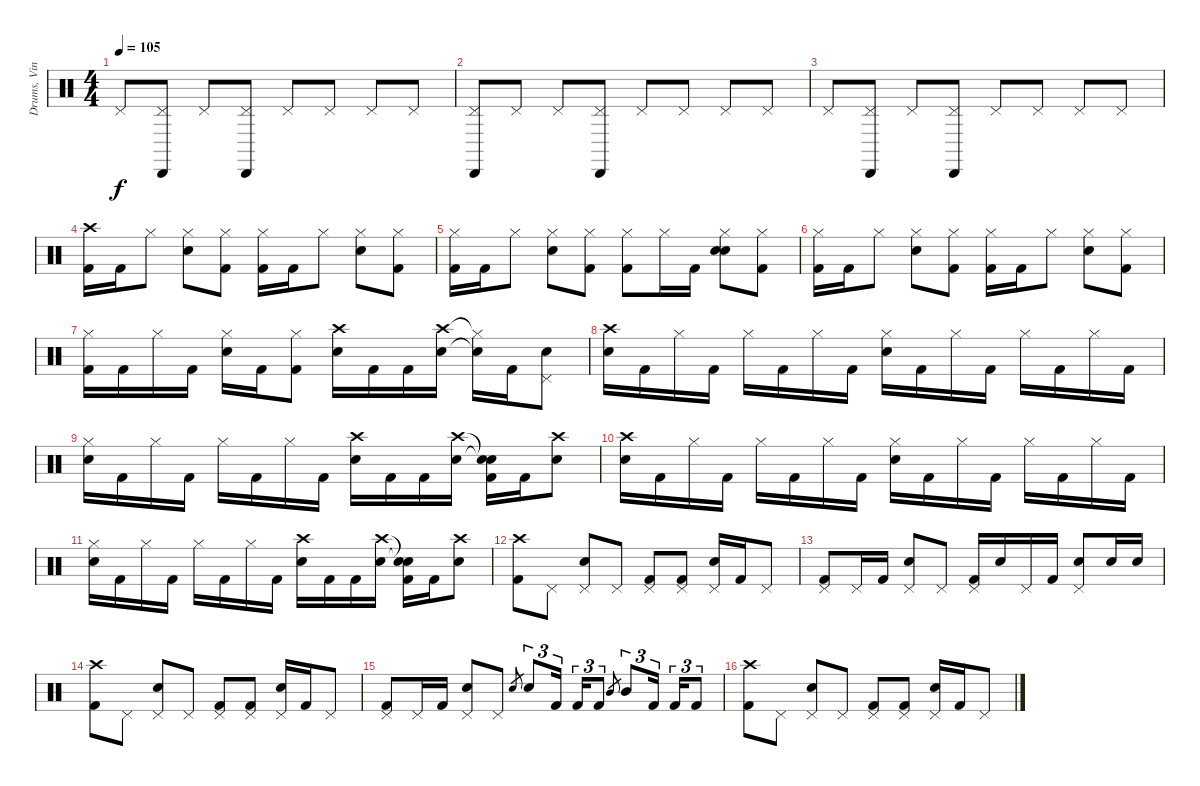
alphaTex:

\track ("Drums, Vinnie" "Drums, Vin") {instrument percussion}
\staff {score}
\articulation defaults
\ts (4 4)
\tempo 105
\clef neutral
\ks c "Pedal Hi-Hat (hit)".8{dy f}
("Pedal Hi-Hat (hit)" "Cabasa (hit)").8 "Pedal Hi-Hat (hit)".8 ("Pedal Hi-Hat (hit)" "Cabasa (hit)").8 "Pedal Hi-Hat (hit)".8 "Pedal Hi-Hat (hit)".8 "Pedal Hi-Hat (hit)".8 "Pedal Hi-Hat (hit)".8 |
("Pedal Hi-Hat (hit)" "Cabasa (hit)").8 "Pedal Hi-Hat (hit)".8 "Pedal Hi-Hat (hit)".8 ("Pedal Hi-Hat (hit)" "Cabasa (hit)").8 "Pedal Hi-Hat (hit)".8 "Pedal Hi-Hat (hit)".8 "Pedal Hi-Hat (hit)".8 "Pedal Hi-Hat (hit)".8 |
"Pedal Hi-Hat (hit)".8 ("Pedal Hi-Hat (hit)" "Cabasa (hit)").8 "Pedal Hi-Hat (hit)".8 ("Pedal Hi-Hat (hit)" "Cabasa (hit)").8 "Pedal Hi-Hat (hit)".8 "Pedal Hi-Hat (hit)".8 "Pedal Hi-Hat (hit)".8 "Pedal Hi-Hat (hit)".8 |
("Crash high (hit)" "Kick (hit) 2").16 "Kick (hit) 2".16 "Hi-Hat (closed)".8 ("Hi-Hat (closed)" "Electric Snare (hit)").8 ("Hi-Hat (closed)" "Kick (hit) 2").8 ("Hi-Hat (closed)" "Kick (hit) 2").16 "Kick (hit) 2".16 "Hi-Hat (closed)".8 ("Hi-Hat (closed)" "Electric Snare (hit)").8 ("Hi-Hat (closed)" "Kick (hit) 2").8 |
("Hi-Hat (closed)" "Kick (hit) 2").16 "Kick (hit) 2".16 "Hi-Hat (closed)".8 ("Hi-Hat (closed)" "Electric Snare (hit)").8 ("Hi-Hat (closed)" "Kick (hit) 2").8 ("Hi-Hat (closed)" "Kick (hit) 2").8 "Hi-Hat (closed)".16 "Kick (hit) 2".16 ("Hi-Hat (closed)" "Electric Snare (hit)" "Snare (hit)").8 ("Hi-Hat (closed)" "Kick (hit) 2").8 |
("Hi-Hat (closed)" "Kick (hit) 2").16 "Kick (hit) 2".16 "Hi-Hat (closed)".8 ("Hi-Hat (closed)" "Electric Snare (hit)").8 ("Hi-Hat (closed)" "Kick (hit) 2").8 ("Hi-Hat (closed)" "Kick (hit) 2").16 "Kick (hit) 2".16 "Hi-Hat (closed)".8 ("Hi-Hat (closed)" "Electric Snare (hit)").8 ("Hi-Hat (closed)" "Kick (hit) 2").8 |
("Hi-Hat (closed)" "Kick (hit) 2").16 "Kick (hit) 2".16 "Hi-Hat (closed)".16 "Kick (hit) 2".16 ("Hi-Hat (closed)" "Electric Snare (hit)").16 "Kick (hit) 2".16 ("Hi-Hat (closed)" "Kick (hit) 2").8 ("Crash high (hit)" "Electric Snare (hit)").16 "Kick (hit) 2".16 "Kick (hit) 2".16 ("Crash high (hit)" "Electric Snare (hit)").16 ("Hi-Hat (closed)"{t} "Snare (hit)"{t}).16 "Kick (hit) 2".16 ("Pedal Hi-Hat (hit)" "Electric Snare (hit)").8 |
("Crash high (hit)" "Electric Snare (hit)").16 "Kick (hit) 2".16 "Hi-Hat (closed)".16 "Kick (hit) 2".16 "Hi-Hat (closed)".16 "Kick (hit) 2".16 "Hi-Hat (closed)".16 "Kick (hit) 2".16 ("Hi-Hat (closed)" "Electric Snare (hit)").16 "Kick (hit) 2".16 "Hi-Hat (closed)".16 "Kick (hit) 2".16 "Hi-Hat (closed)".16 "Kick (hit) 2".16 "Hi-Hat (closed)".16 "Kick (hit) 2".16 |
("Hi-Hat (closed)" "Electric Snare (hit)").16 "Kick (hit) 2".16 "Hi-Hat (closed)".16 "Kick (hit) 2".16 "Hi-Hat (closed)".16 "Kick (hit) 2".16 "Hi-Hat (closed)".16 "Kick (hit) 2".16 ("Crash high (hit)" "Electric Snare (hit)").16 "Kick (hit) 2".16 "Kick (hit) 2".16 ("Crash high (hit)" "Electric Snare (hit)").16 ("Snare (hit)"{t} "Snare (hit)"{t} "Kick (hit) 2").16 "Kick (hit) 2".16 ("Crash high (hit)" "Electric Snare (hit)").8 |
("Crash high (hit)" "Electric Snare (hit)").16 "Kick (hit) 2".16 "Hi-Hat (closed)".16 "Kick (hit) 2".16 "Hi-Hat (closed)".16 "Kick (hit) 2".16 "Hi-Hat (closed)".16 "Kick (hit) 2".16 ("Hi-Hat (closed)" "Electric Snare (hit)").16 "Kick (hit) 2".16 "Hi-Hat (closed)".16 "Kick (hit) 2".16 "Hi-Hat (closed)".16 "Kick (hit) 2".16 "Hi-Hat (closed)".16 "Kick (hit) 2".16 |
("Hi-Hat (closed)" "Electric Snare (hit)").16 "Kick (hit) 2".16 "Hi-Hat (closed)".16 "Kick (hit) 2".16 "Hi-Hat (closed)".16 "Kick (hit) 2".16 "Hi-Hat (closed)".16 "Kick (hit) 2".16 ("Crash high (hit)" "Electric Snare (hit)").16 "Kick (hit) 2".16 "Kick (hit) 2".16 ("Crash high (hit)" "Electric Snare (hit)").16 ("Snare (hit)"{t} "Snare (hit)"{t} "Kick (hit) 2").16 "Kick (hit) 2".16 ("Crash high (hit)" "Electric Snare (hit)").8 |
("Crash high (hit)" "Kick (hit) 2").8 "Pedal Hi-Hat (hit)".8 ("Pedal Hi-Hat (hit)" "Electric Snare (hit)").8 "Pedal Hi-Hat (hit)".8 ("Pedal Hi-Hat (hit)" "Kick (hit) 2").8 ("Pedal Hi-Hat (hit)" "Kick (hit) 2").8 ("Pedal Hi-Hat (hit)" "Electric Snare (hit)").16 "Kick (hit) 2".16 "Pedal Hi-Hat (hit)".8 |
("Pedal Hi-Hat (hit)" "Kick (hit) 2").8 "Pedal Hi-Hat (hit)".16 "Kick (hit) 2".16 ("Pedal Hi-Hat (hit)" "Electric Snare (hit)").8 "Pedal Hi-Hat (hit)".8 ("Pedal Hi-Hat (hit)" "Kick (hit) 2").16 "Electric Snare (hit)".16 "Pedal Hi-Hat (hit)".16 "Kick (hit) 2".16 ("Pedal Hi-Hat (hit)" "Electric Snare (hit)").8 "Electric Snare (hit)".16 "Electric Snare (hit)".16 |
("Crash high (hit)" "Kick (hit) 2").8 "Pedal Hi-Hat (hit)".8 ("Pedal Hi-Hat (hit)" "Electric Snare (hit)").8 "Pedal Hi-Hat (hit)".8 ("Pedal Hi-Hat (hit)" "Kick (hit) 2").8 ("Pedal Hi-Hat (hit)" "Kick (hit) 2").8 ("Pedal Hi-Hat (hit)" "Electric Snare (hit)").16 "Kick (hit) 2".16 "Pedal Hi-Hat (hit)".8 |
("Pedal Hi-Hat (hit)" "Kick (hit) 2").8 "Pedal Hi-Hat (hit)".16 "Kick (hit) 2".16 ("Pedal Hi-Hat (hit)" "Electric Snare (hit)").8 "Pedal Hi-Hat (hit)".8 "Electric Snare (hit)".8{gr} "Electric Snare (hit)".8{tu (3 2)} "Kick (hit) 2".16{tu (3 2)} "Kick (hit) 2".16{tu (3 2)} "Kick (hit) 2".8{tu (3 2)} "Mid Tom (hit)".8{gr} "Mid Tom (hit)".8{tu (3 2)} "Kick (hit) 2".16{tu (3 2)} "Kick (hit) 2".16{tu (3 2)} "Kick (hit) 2".8{tu (3 2)} |
("Crash high (hit)" "Kick (hit) 2").8 "Pedal Hi-Hat (hit)".8 ("Pedal Hi-Hat (hit)" "Electric Snare (hit)").8 "Pedal Hi-Hat (hit)".8 ("Pedal Hi-Hat (hit)" "Kick (hit) 2").8 ("Pedal Hi-Hat (hit)" "Kick (hit) 2").8 ("Pedal Hi-Hat (hit)" "Electric Snare (hit)").16 "Kick (hit) 2".16 "Pedal Hi-Hat (hit)".8
